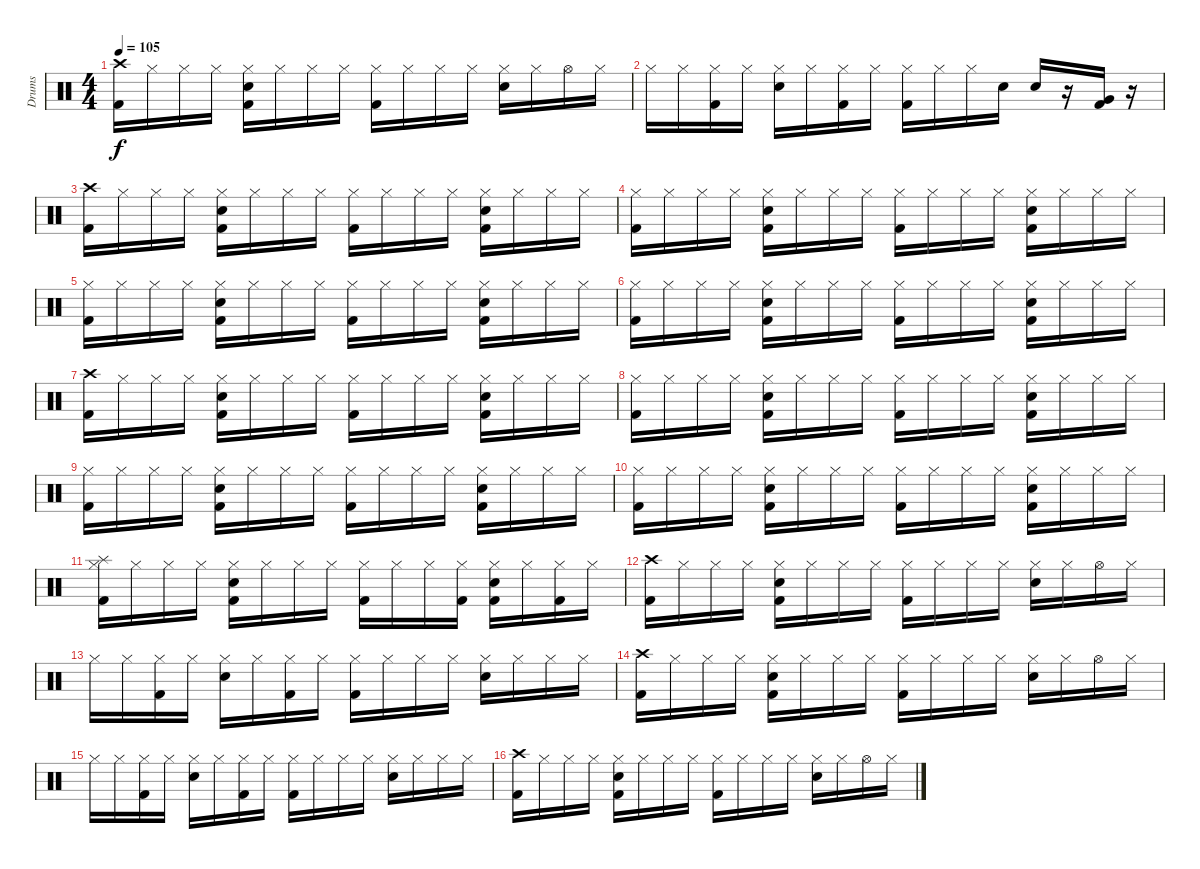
\track ("Drums" "Drums") {instrument percussion}
\staff {score}
\articulation defaults
\ts (4 4)
\tempo 105
\clef neutral
\ks c
("Kick (hit) 2" "Crash high (hit)").16{dy f} "Hi-Hat (closed)".16 "Hi-Hat (closed)".16 "Hi-Hat (closed)".16 ("Snare (hit) 2" "Kick (hit) 2" "Hi-Hat (closed)").16 "Hi-Hat (closed)".16 "Hi-Hat (closed)".16 "Hi-Hat (closed)".16 ("Kick (hit) 2" "Hi-Hat (closed)").16 "Hi-Hat (closed)".16 "Hi-Hat (closed)".16 "Hi-Hat (closed)".16 ("Snare (hit) 2" "Hi-Hat (closed)").16 "Hi-Hat (closed)".16 "Hi-Hat (open)".16 "Hi-Hat (closed)".16 |
"Hi-Hat (closed)".16 "Hi-Hat (closed)".16 ("Kick (hit) 2" "Hi-Hat (closed)").16 "Hi-Hat (closed)".16 ("Snare (hit) 2" "Hi-Hat (closed)").16 "Hi-Hat (closed)".16 ("Kick (hit) 2" "Hi-Hat (closed)").16 "Hi-Hat (closed)".16 ("Kick (hit) 2" "Hi-Hat (closed)").16 "Hi-Hat (closed)".16 "Hi-Hat (closed)".16 "Snare (hit) 2".16 "Snare (hit) 2".16 r.16 ("Very Low Tom (hit)" "Kick (hit) 2").16 r.16 |
("Kick (hit) 2" "Crash high (hit)").16 "Hi-Hat (closed)".16 "Hi-Hat (closed)".16 "Hi-Hat (closed)".16 ("Kick (hit) 2" "Snare (hit) 2" "Hi-Hat (closed)").16 "Hi-Hat (closed)".16 "Hi-Hat (closed)".16 "Hi-Hat (closed)".16 ("Kick (hit) 2" "Hi-Hat (closed)").16 "Hi-Hat (closed)".16 "Hi-Hat (closed)".16 "Hi-Hat (closed)".16 ("Kick (hit) 2" "Snare (hit) 2" "Hi-Hat (closed)").16 "Hi-Hat (closed)".16 "Hi-Hat (closed)".16 "Hi-Hat (closed)".16 |
("Kick (hit) 2" "Hi-Hat (closed)").16 "Hi-Hat (closed)".16 "Hi-Hat (closed)".16 "Hi-Hat (closed)".16 ("Kick (hit) 2" "Snare (hit) 2" "Hi-Hat (closed)").16 "Hi-Hat (closed)".16 "Hi-Hat (closed)".16 "Hi-Hat (closed)".16 ("Kick (hit) 2" "Hi-Hat (closed)").16 "Hi-Hat (closed)".16 "Hi-Hat (closed)".16 "Hi-Hat (closed)".16 ("Kick (hit) 2" "Snare (hit) 2" "Hi-Hat (closed)").16 "Hi-Hat (closed)".16 "Hi-Hat (closed)".16 "Hi-Hat (closed)".16 |
("Kick (hit) 2" "Hi-Hat (closed)").16 "Hi-Hat (closed)".16 "Hi-Hat (closed)".16 "Hi-Hat (closed)".16 ("Kick (hit) 2" "Snare (hit) 2" "Hi-Hat (closed)").16 "Hi-Hat (closed)".16 "Hi-Hat (closed)".16 "Hi-Hat (closed)".16 ("Kick (hit) 2" "Hi-Hat (closed)").16 "Hi-Hat (closed)".16 "Hi-Hat (closed)".16 "Hi-Hat (closed)".16 ("Kick (hit) 2" "Snare (hit) 2" "Hi-Hat (closed)").16 "Hi-Hat (closed)".16 "Hi-Hat (closed)".16 "Hi-Hat (closed)".16 |
("Kick (hit) 2" "Hi-Hat (closed)").16 "Hi-Hat (closed)".16 "Hi-Hat (closed)".16 "Hi-Hat (closed)".16 ("Kick (hit) 2" "Snare (hit) 2" "Hi-Hat (closed)").16 "Hi-Hat (closed)".16 "Hi-Hat (closed)".16 "Hi-Hat (closed)".16 ("Kick (hit) 2" "Hi-Hat (closed)").16 "Hi-Hat (closed)".16 "Hi-Hat (closed)".16 "Hi-Hat (closed)".16 ("Kick (hit) 2" "Snare (hit) 2" "Hi-Hat (closed)").16 "Hi-Hat (closed)".16 "Hi-Hat (closed)".16 "Hi-Hat (closed)".16 |
("Kick (hit) 2" "Crash high (hit)").16 "Hi-Hat (closed)".16 "Hi-Hat (closed)".16 "Hi-Hat (closed)".16 ("Kick (hit) 2" "Snare (hit) 2" "Hi-Hat (closed)").16 "Hi-Hat (closed)".16 "Hi-Hat (closed)".16 "Hi-Hat (closed)".16 ("Kick (hit) 2" "Hi-Hat (closed)").16 "Hi-Hat (closed)".16 "Hi-Hat (closed)".16 "Hi-Hat (closed)".16 ("Kick (hit) 2" "Snare (hit) 2" "Hi-Hat (closed)").16 "Hi-Hat (closed)".16 "Hi-Hat (closed)".16 "Hi-Hat (closed)".16 |
("Kick (hit) 2" "Hi-Hat (closed)").16 "Hi-Hat (closed)".16 "Hi-Hat (closed)".16 "Hi-Hat (closed)".16 ("Kick (hit) 2" "Snare (hit) 2" "Hi-Hat (closed)").16 "Hi-Hat (closed)".16 "Hi-Hat (closed)".16 "Hi-Hat (closed)".16 ("Kick (hit) 2" "Hi-Hat (closed)").16 "Hi-Hat (closed)".16 "Hi-Hat (closed)".16 "Hi-Hat (closed)".16 ("Kick (hit) 2" "Snare (hit) 2" "Hi-Hat (closed)").16 "Hi-Hat (closed)".16 "Hi-Hat (closed)".16 "Hi-Hat (closed)".16 |
("Kick (hit) 2" "Hi-Hat (closed)").16 "Hi-Hat (closed)".16 "Hi-Hat (closed)".16 "Hi-Hat (closed)".16 ("Kick (hit) 2" "Snare (hit) 2" "Hi-Hat (closed)").16 "Hi-Hat (closed)".16 "Hi-Hat (closed)".16 "Hi-Hat (closed)".16 ("Kick (hit) 2" "Hi-Hat (closed)").16 "Hi-Hat (closed)".16 "Hi-Hat (closed)".16 "Hi-Hat (closed)".16 ("Kick (hit) 2" "Snare (hit) 2" "Hi-Hat (closed)").16 "Hi-Hat (closed)".16 "Hi-Hat (closed)".16 "Hi-Hat (closed)".16 |
("Kick (hit) 2" "Hi-Hat (closed)").16 "Hi-Hat (closed)".16 "Hi-Hat (closed)".16 "Hi-Hat (closed)".16 ("Kick (hit) 2" "Snare (hit) 2" "Hi-Hat (closed)").16 "Hi-Hat (closed)".16 "Hi-Hat (closed)".16 "Hi-Hat (closed)".16 ("Kick (hit) 2" "Hi-Hat (closed)").16 "Hi-Hat (closed)".16 "Hi-Hat (closed)".16 "Hi-Hat (closed)".16 ("Kick (hit) 2" "Snare (hit) 2" "Hi-Hat (closed)").16 "Hi-Hat (closed)".16 "Hi-Hat (closed)".16 "Hi-Hat (closed)".16 |
("Kick (hit) 2" "Hi-Hat (closed)" "Splash (hit)").16 "Hi-Hat (closed)".16 "Hi-Hat (closed)".16 "Hi-Hat (closed)".16 ("Kick (hit) 2" "Snare (hit) 2" "Hi-Hat (closed)").16 "Hi-Hat (closed)".16 "Hi-Hat (closed)".16 "Hi-Hat (closed)".16 ("Hi-Hat (closed)" "Kick (hit) 2").16 "Hi-Hat (closed)".16 "Hi-Hat (closed)".16 ("Kick (hit) 2" "Hi-Hat (closed)").16 ("Snare (hit) 2" "Kick (hit) 2" "Hi-Hat (closed)").16 "Hi-Hat (closed)".16 ("Kick (hit) 2" "Hi-Hat (closed)").16 "Hi-Hat (closed)".16 |
("Kick (hit) 2" "Crash high (hit)").16 "Hi-Hat (closed)".16 "Hi-Hat (closed)".16 "Hi-Hat (closed)".16 ("Snare (hit) 2" "Kick (hit) 2" "Hi-Hat (closed)").16 "Hi-Hat (closed)".16 "Hi-Hat (closed)".16 "Hi-Hat (closed)".16 ("Kick (hit) 2" "Hi-Hat (closed)").16 "Hi-Hat (closed)".16 "Hi-Hat (closed)".16 "Hi-Hat (closed)".16 ("Snare (hit) 2" "Hi-Hat (closed)").16 "Hi-Hat (closed)".16 "Hi-Hat (open)".16 "Hi-Hat (closed)".16 |
"Hi-Hat (closed)".16 "Hi-Hat (closed)".16 ("Kick (hit) 2" "Hi-Hat (closed)").16 "Hi-Hat (closed)".16 ("Snare (hit) 2" "Hi-Hat (closed)").16 "Hi-Hat (closed)".16 ("Kick (hit) 2" "Hi-Hat (closed)").16 "Hi-Hat (closed)".16 ("Kick (hit) 2" "Hi-Hat (closed)").16 "Hi-Hat (closed)".16 "Hi-Hat (closed)".16 "Hi-Hat (closed)".16 ("Snare (hit) 2" "Hi-Hat (closed)").16 "Hi-Hat (closed)".16 "Hi-Hat (closed)".16 "Hi-Hat (closed)".16 |
("Kick (hit) 2" "Crash high (hit)").16 "Hi-Hat (closed)".16 "Hi-Hat (closed)".16 "Hi-Hat (closed)".16 ("Snare (hit) 2" "Kick (hit) 2" "Hi-Hat (closed)").16 "Hi-Hat (closed)".16 "Hi-Hat (closed)".16 "Hi-Hat (closed)".16 ("Kick (hit) 2" "Hi-Hat (closed)").16 "Hi-Hat (closed)".16 "Hi-Hat (closed)".16 "Hi-Hat (closed)".16 ("Snare (hit) 2" "Hi-Hat (closed)").16 "Hi-Hat (closed)".16 "Hi-Hat (open)".16 "Hi-Hat (closed)".16 |
"Hi-Hat (closed)".16 "Hi-Hat (closed)".16 ("Kick (hit) 2" "Hi-Hat (closed)").16 "Hi-Hat (closed)".16 ("Snare (hit) 2" "Hi-Hat (closed)").16 "Hi-Hat (closed)".16 ("Kick (hit) 2" "Hi-Hat (closed)").16 "Hi-Hat (closed)".16 ("Kick (hit) 2" "Hi-Hat (closed)").16 "Hi-Hat (closed)".16 "Hi-Hat (closed)".16 "Hi-Hat (closed)".16 ("Snare (hit) 2" "Hi-Hat (closed)").16 "Hi-Hat (closed)".16 "Hi-Hat (closed)".16 "Hi-Hat (closed)".16 |
("Kick (hit) 2" "Crash high (hit)").16 "Hi-Hat (closed)".16 "Hi-Hat (closed)".16 "Hi-Hat (closed)".16 ("Snare (hit) 2" "Kick (hit) 2" "Hi-Hat (closed)").16 "Hi-Hat (closed)".16 "Hi-Hat (closed)".16 "Hi-Hat (closed)".16 ("Kick (hit) 2" "Hi-Hat (closed)").16 "Hi-Hat (closed)".16 "Hi-Hat (closed)".16 "Hi-Hat (closed)".16 ("Snare (hit) 2" "Hi-Hat (closed)").16 "Hi-Hat (closed)".16 "Hi-Hat (open)".16 "Hi-Hat (closed)".16
